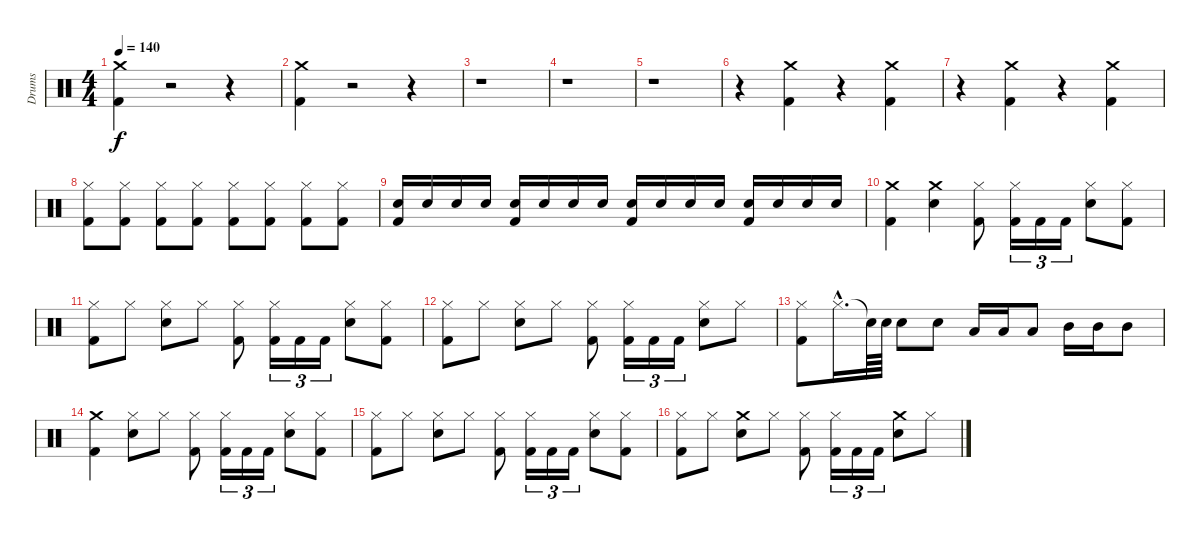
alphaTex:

\track ("Drums" "Drums") {instrument percussion}
\staff {score}
\articulation defaults
\ts (4 4)
\tempo 140
\clef neutral
\ks c
("Kick (hit) 2" "Crash medium (hit)").4{dy f} r.2 r.4 |
("Kick (hit) 2" "Crash medium (hit)").4 r.2 r.4 |
r.1 |
r.1 |
r.1 |
r.4 ("Kick (hit) 2" "Crash medium (hit)").4 r.4 ("Kick (hit) 2" "Crash medium (hit)").4 |
r.4 ("Kick (hit) 2" "Crash medium (hit)").4 r.4 ("Crash medium (hit)" "Kick (hit) 2").4 |
("Kick (hit) 2" "Hi-Hat (closed)").8 ("Kick (hit) 2" "Hi-Hat (closed)").8 ("Kick (hit) 2" "Hi-Hat (closed)").8 ("Kick (hit) 2" "Hi-Hat (closed)").8 ("Kick (hit) 2" "Hi-Hat (closed)").8 ("Kick (hit) 2" "Hi-Hat (closed)").8 ("Kick (hit) 2" "Hi-Hat (closed)").8 ("Kick (hit) 2" "Hi-Hat (closed)").8 |
("Kick (hit) 2" "Snare (hit) 2").16 "Snare (hit) 2".16 "Snare (hit) 2".16 "Snare (hit) 2".16 ("Kick (hit) 2" "Snare (hit) 2").16 "Snare (hit) 2".16 "Snare (hit) 2".16 "Snare (hit) 2".16 ("Kick (hit) 2" "Snare (hit) 2").16 "Snare (hit) 2".16 "Snare (hit) 2".16 "Snare (hit) 2".16 ("Kick (hit) 2" "Snare (hit) 2").16 "Snare (hit) 2".16 "Snare (hit) 2".16 "Snare (hit) 2".16 |
("Kick (hit) 2" "Crash medium (hit)").4 ("Snare (hit) 2" "Crash medium (hit)").4 ("Kick (hit) 2" "Hi-Hat (closed)").8 ("Kick (hit) 2" "Hi-Hat (closed)").16{tu (3 2)} "Kick (hit) 2".16{tu (3 2)} "Kick (hit) 2".16{tu (3 2)} ("Snare (hit) 2" "Hi-Hat (closed)").8 ("Kick (hit) 2" "Hi-Hat (closed)").8 |
("Hi-Hat (closed)" "Kick (hit) 2").8 "Hi-Hat (closed)".8 ("Snare (hit) 2" "Hi-Hat (closed)").8 "Hi-Hat (closed)".8 ("Kick (hit) 2" "Hi-Hat (closed)").8 ("Kick (hit) 2" "Hi-Hat (closed)").16{tu (3 2)} "Kick (hit) 2".16{tu (3 2)} "Kick (hit) 2".16{tu (3 2)} ("Snare (hit) 2" "Hi-Hat (closed)").8 ("Kick (hit) 2" "Hi-Hat (closed)").8 |
("Hi-Hat (closed)" "Kick (hit) 2").8 "Hi-Hat (closed)".8 ("Snare (hit) 2" "Hi-Hat (closed)").8 "Hi-Hat (closed)".8 ("Kick (hit) 2" "Hi-Hat (closed)").8 ("Kick (hit) 2" "Hi-Hat (closed)").16{tu (3 2)} "Kick (hit) 2".16{tu (3 2)} "Kick (hit) 2".16{tu (3 2)} ("Snare (hit) 2" "Hi-Hat (closed)").8 "Hi-Hat (closed)".8 |
("Kick (hit) 2" "Hi-Hat (closed)").8 "Hi-Hat (closed)"{hac}.16{d} "Snare (hit)"{t}.64 "Snare (hit) 2".64 "Snare (hit) 2".8 "Snare (hit) 2".8 "Low Tom (hit)".16 "Low Tom (hit)".16 "Low Tom (hit)".8 "Mid Tom (hit)".16 "Mid Tom (hit)".16 "Mid Tom (hit)".8 |
("Kick (hit) 2" "Crash medium (hit)").4 ("Hi-Hat (closed)" "Snare (hit) 2").8 "Hi-Hat (closed)".8 ("Kick (hit) 2" "Hi-Hat (closed)").8 ("Kick (hit) 2" "Hi-Hat (closed)").16{tu (3 2)} "Kick (hit) 2".16{tu (3 2)} "Kick (hit) 2".16{tu (3 2)} ("Snare (hit) 2" "Hi-Hat (closed)").8 ("Kick (hit) 2" "Hi-Hat (closed)").8 |
("Hi-Hat (closed)" "Kick (hit) 2").8 "Hi-Hat (closed)".8 ("Snare (hit) 2" "Hi-Hat (closed)").8 "Hi-Hat (closed)".8 ("Kick (hit) 2" "Hi-Hat (closed)").8 ("Kick (hit) 2" "Hi-Hat (closed)").16{tu (3 2)} "Kick (hit) 2".16{tu (3 2)} "Kick (hit) 2".16{tu (3 2)} ("Snare (hit) 2" "Hi-Hat (closed)").8 ("Kick (hit) 2" "Hi-Hat (closed)").8 |
("Kick (hit) 2" "Hi-Hat (closed)").8 "Hi-Hat (closed)".8 ("Snare (hit) 2" "Crash medium (hit)").8 "Hi-Hat (closed)".8 ("Kick (hit) 2" "Hi-Hat (closed)").8 ("Kick (hit) 2" "Hi-Hat (closed)").16{tu (3 2)} "Kick (hit) 2".16{tu (3 2)} "Kick (hit) 2".16{tu (3 2)} ("Crash medium (hit)" "Snare (hit) 2").8 "Hi-Hat (closed)".8
